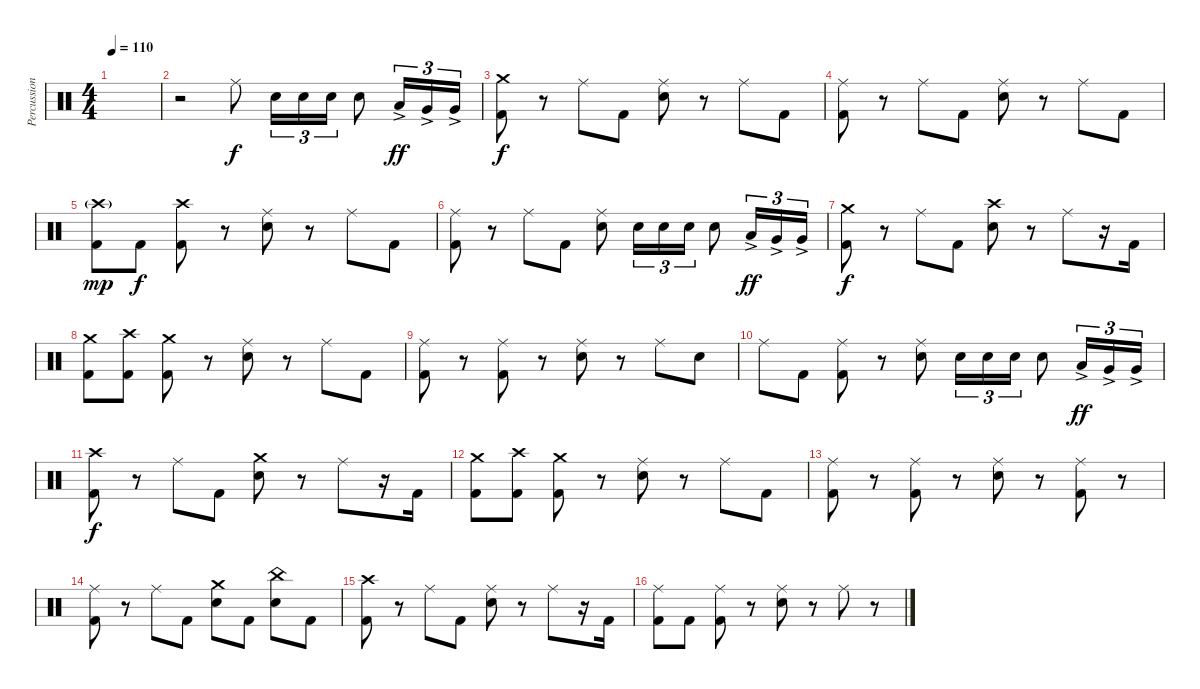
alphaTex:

\track ("Percussion" "Percussion") {instrument percussion}
\staff {score}
\articulation defaults
\ts (4 4)
\tempo 110
\clef neutral
\ks c
|
r.2 "Ride (middle)".8 "Electric Snare (hit)".16{tu (3 2)} "Electric Snare (hit)".16{tu (3 2)} "Electric Snare (hit)".16{tu (3 2)} "Electric Snare (hit)".8 "Low Tom (hit)"{ac}.16{tu (3 2) dy ff} "Very Low Tom (hit)"{ac}.16{tu (3 2)} "Very Low Tom (hit)"{ac}.16{tu (3 2)} |
("Crash medium (hit)" "Kick (hit) 2").8{dy f} r.8 "Ride (middle)".8 "Kick (hit) 2".8 ("Ride (middle)" "Electric Snare (hit)").8 r.8 "Ride (middle)".8 "Kick (hit) 2".8 |
("Ride (middle)" "Kick (hit) 2").8 r.8 "Ride (middle)".8 "Kick (hit) 2".8 ("Ride (middle)" "Electric Snare (hit)").8 r.8 "Ride (middle)".8 "Kick (hit) 2".8 |
("Crash high (hit)"{g} "Kick (hit) 2").8{dy mp} "Kick (hit) 2".8{dy f} ("Crash high (hit)" "Kick (hit) 2").8 r.8 ("Ride (middle)" "Electric Snare (hit)").8 r.8 "Ride (middle)".8 "Kick (hit) 2".8 |
("Ride (middle)" "Kick (hit) 2").8 r.8 "Ride (middle)".8 "Kick (hit) 2".8 ("Ride (middle)" "Electric Snare (hit)").8 "Electric Snare (hit)".16{tu (3 2)} "Electric Snare (hit)".16{tu (3 2)} "Electric Snare (hit)".16{tu (3 2)} "Electric Snare (hit)".8 "Low Tom (hit)"{ac}.16{tu (3 2) dy ff} "Very Low Tom (hit)"{ac}.16{tu (3 2)} "Very Low Tom (hit)"{ac}.16{tu (3 2)} |
("Crash medium (hit)" "Kick (hit) 2").8{dy f} r.8 "Ride (middle)".8 "Kick (hit) 2".8 ("Crash high (hit)" "Electric Snare (hit)").8 r.8 "Ride (middle)".8 r.16 "Kick (hit) 2".16 |
("Crash medium (hit)" "Kick (hit) 2").8 ("Crash high (hit)" "Kick (hit) 2").8 ("Crash medium (hit)" "Kick (hit) 2").8 r.8 ("Ride (middle)" "Electric Snare (hit)").8 r.8 "Ride (middle)".8 "Kick (hit) 2".8 |
("Ride (middle)" "Kick (hit) 2").8 r.8 ("Ride (middle)" "Kick (hit) 2").8 r.8 ("Ride (middle)" "Electric Snare (hit)").8 r.8 "Ride (middle)".8 "Electric Snare (hit)".8 |
"Ride (middle)".8 "Kick (hit) 2".8 ("Ride (middle)" "Kick (hit) 2").8 r.8 ("Ride (middle)" "Electric Snare (hit)").8 "Electric Snare (hit)".16{tu (3 2)} "Electric Snare (hit)".16{tu (3 2)} "Electric Snare (hit)".16{tu (3 2)} "Electric Snare (hit)".8 "Low Tom (hit)"{ac}.16{tu (3 2) dy ff} "Very Low Tom (hit)"{ac}.16{tu (3 2)} "Very Low Tom (hit)"{ac}.16{tu (3 2)} |
("Crash high (hit)" "Kick (hit) 2").8{dy f} r.8 "Ride (middle)".8 "Kick (hit) 2".8 ("Crash medium (hit)" "Electric Snare (hit)").8 r.8 "Ride (middle)".8 r.16 "Kick (hit) 2".16 |
("Crash medium (hit)" "Kick (hit) 2").8 ("Crash high (hit)" "Kick (hit) 2").8 ("Crash medium (hit)" "Kick (hit) 2").8 r.8 ("Ride (middle)" "Electric Snare (hit)").8 r.8 "Ride (middle)".8 "Kick (hit) 2".8 |
("Ride (middle)" "Kick (hit) 2").8 r.8 ("Ride (middle)" "Kick (hit) 2").8 r.8 ("Ride (middle)" "Electric Snare (hit)").8 r.8 ("Ride (middle)" "Kick (hit) 2").8 r.8 |
("Ride (middle)" "Kick (hit) 2").8 r.8 "Ride (middle)".8 "Kick (hit) 2".8 ("Crash medium (hit)" "Electric Snare (hit)").8 "Kick (hit) 2".8 ("China (hit)" "Electric Snare (hit)").8 "Kick (hit) 2".8 |
("Crash high (hit)" "Kick (hit) 2").8 r.8 "Ride (middle)".8 "Kick (hit) 2".8 ("Ride (middle)" "Electric Snare (hit)").8 r.8 "Ride (middle)".8 r.16 "Kick (hit) 2".16 |
("Ride (middle)" "Kick (hit) 2").8 "Kick (hit) 2".8 ("Ride (middle)" "Kick (hit) 2").8 r.8 ("Ride (middle)" "Electric Snare (hit)").8 r.8 "Ride (middle)".8 r.8
